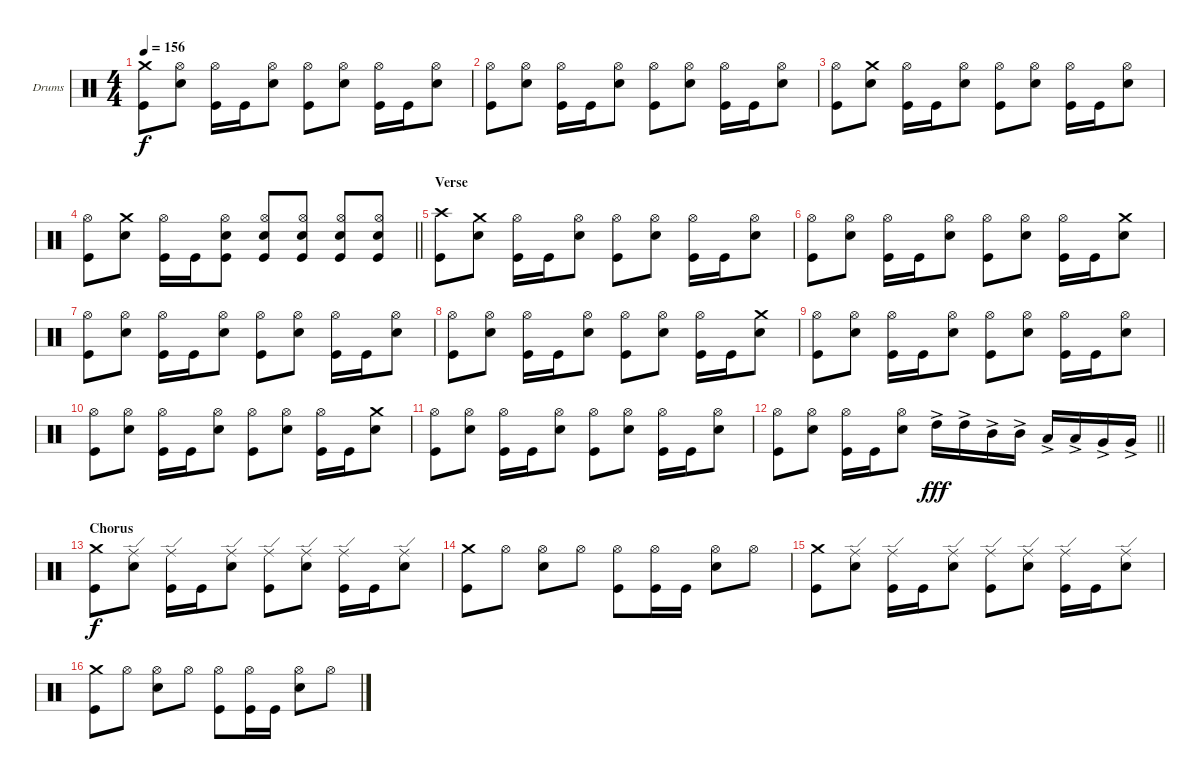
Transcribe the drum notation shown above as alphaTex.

\bracketExtendMode groupsimilarinstruments
\firstSystemTrackNameOrientation horizontal
\otherSystemsTrackNameOrientation horizontal
\track ("Drums" "Drums") {instrument percussion}
\staff {score}
\articulation defaults
\ts (4 4)
\tempo 156
\clef neutral
\ks c
("Crash medium (hit)" "Kick (hit)").8{dy f} ("Hi-Hat (open)" "Snare (hit) 2").8 ("Hi-Hat (open)" "Kick (hit)").16 "Kick (hit)".16 ("Hi-Hat (open)" "Snare (hit) 2").8 ("Hi-Hat (open)" "Kick (hit)").8 ("Hi-Hat (open)" "Snare (hit) 2").8 ("Hi-Hat (open)" "Kick (hit)").16 "Kick (hit)".16 ("Hi-Hat (open)" "Snare (hit) 2").8 |
("Hi-Hat (open)" "Kick (hit)").8 ("Hi-Hat (open)" "Snare (hit) 2").8 ("Hi-Hat (open)" "Kick (hit)").16 "Kick (hit)".16 ("Hi-Hat (open)" "Snare (hit) 2").8 ("Hi-Hat (open)" "Kick (hit)").8 ("Hi-Hat (open)" "Snare (hit) 2").8 ("Hi-Hat (open)" "Kick (hit)").16 "Kick (hit)".16 ("Hi-Hat (open)" "Snare (hit) 2").8 |
("Hi-Hat (open)" "Kick (hit)").8 ("Crash medium (hit)" "Snare (hit) 2").8 ("Hi-Hat (open)" "Kick (hit)").16 "Kick (hit)".16 ("Hi-Hat (open)" "Snare (hit) 2").8 ("Hi-Hat (open)" "Kick (hit)").8 ("Hi-Hat (open)" "Snare (hit) 2").8 ("Hi-Hat (open)" "Kick (hit)").16 "Kick (hit)".16 ("Hi-Hat (open)" "Snare (hit) 2").8 |
\barLineRight lightlight
("Hi-Hat (open)" "Kick (hit)").8 ("Crash medium (hit)" "Snare (hit) 2").8 ("Hi-Hat (open)" "Kick (hit)").16 "Kick (hit)".16 ("Hi-Hat (open)" "Snare (hit) 2" "Kick (hit)").8 ("Hi-Hat (open)" "Kick (hit)" "Snare (hit) 2").8 ("Kick (hit)" "Snare (hit) 2" "Hi-Hat (open)").8 ("Hi-Hat (open)" "Snare (hit) 2" "Kick (hit)").8 ("Hi-Hat (open)" "Snare (hit) 2" "Kick (hit)").8 |
\section ("" "Verse")
("Crash high (hit)" "Kick (hit)").8 ("Crash medium (hit)" "Snare (hit) 2").8 ("Hi-Hat (open)" "Kick (hit)").16 "Kick (hit)".16 ("Hi-Hat (open)" "Snare (hit) 2").8 ("Hi-Hat (open)" "Kick (hit)").8 ("Hi-Hat (open)" "Snare (hit) 2").8 ("Hi-Hat (open)" "Kick (hit)").16 "Kick (hit)".16 ("Hi-Hat (open)" "Snare (hit) 2").8 |
("Hi-Hat (open)" "Kick (hit)").8 ("Hi-Hat (open)" "Snare (hit) 2").8 ("Hi-Hat (open)" "Kick (hit)").16 "Kick (hit)".16 ("Hi-Hat (open)" "Snare (hit) 2").8 ("Hi-Hat (open)" "Kick (hit)").8 ("Hi-Hat (open)" "Snare (hit) 2").8 ("Hi-Hat (open)" "Kick (hit)").16 "Kick (hit)".16 ("Crash medium (hit)" "Snare (hit) 2").8 |
("Hi-Hat (open)" "Kick (hit)").8 ("Hi-Hat (open)" "Snare (hit) 2").8 ("Hi-Hat (open)" "Kick (hit)").16 "Kick (hit)".16 ("Hi-Hat (open)" "Snare (hit) 2").8 ("Hi-Hat (open)" "Kick (hit)").8 ("Hi-Hat (open)" "Snare (hit) 2").8 ("Hi-Hat (open)" "Kick (hit)").16 "Kick (hit)".16 ("Hi-Hat (open)" "Snare (hit) 2").8 |
("Hi-Hat (open)" "Kick (hit)").8 ("Hi-Hat (open)" "Snare (hit) 2").8 ("Hi-Hat (open)" "Kick (hit)").16 "Kick (hit)".16 ("Hi-Hat (open)" "Snare (hit) 2").8 ("Hi-Hat (open)" "Kick (hit)").8 ("Hi-Hat (open)" "Snare (hit) 2").8 ("Hi-Hat (open)" "Kick (hit)").16 "Kick (hit)".16 ("Crash medium (hit)" "Snare (hit) 2").8 |
("Hi-Hat (open)" "Kick (hit)").8 ("Hi-Hat (open)" "Snare (hit) 2").8 ("Hi-Hat (open)" "Kick (hit)").16 "Kick (hit)".16 ("Hi-Hat (open)" "Snare (hit) 2").8 ("Hi-Hat (open)" "Kick (hit)").8 ("Hi-Hat (open)" "Snare (hit) 2").8 ("Hi-Hat (open)" "Kick (hit)").16 "Kick (hit)".16 ("Hi-Hat (open)" "Snare (hit) 2").8 |
("Hi-Hat (open)" "Kick (hit)").8 ("Hi-Hat (open)" "Snare (hit) 2").8 ("Hi-Hat (open)" "Kick (hit)").16 "Kick (hit)".16 ("Hi-Hat (open)" "Snare (hit) 2").8 ("Hi-Hat (open)" "Kick (hit)").8 ("Hi-Hat (open)" "Snare (hit) 2").8 ("Hi-Hat (open)" "Kick (hit)").16 "Kick (hit)".16 ("Crash medium (hit)" "Snare (hit) 2").8 |
("Hi-Hat (open)" "Kick (hit)").8 ("Hi-Hat (open)" "Snare (hit) 2").8 ("Hi-Hat (open)" "Kick (hit)").16 "Kick (hit)".16 ("Hi-Hat (open)" "Snare (hit) 2").8 ("Hi-Hat (open)" "Kick (hit)").8 ("Hi-Hat (open)" "Snare (hit) 2").8 ("Hi-Hat (open)" "Kick (hit)").16 "Kick (hit)".16 ("Hi-Hat (open)" "Snare (hit) 2").8 |
\barLineRight lightlight
("Hi-Hat (open)" "Kick (hit)").8 ("Hi-Hat (open)" "Snare (hit) 2").8 ("Hi-Hat (open)" "Kick (hit)").16 "Kick (hit)".16 ("Hi-Hat (open)" "Snare (hit) 2").8 "High Tom (hit)"{ac}.16{dy fff} "High Tom (hit)"{ac}.16 "Mid Tom (hit)"{ac}.16 "Mid Tom (hit)"{ac}.16 "Low Tom (hit)"{ac}.16 "Low Tom (hit)"{ac}.16 "Very Low Tom (hit)"{ac}.16 "Very Low Tom (hit)"{ac}.16 |
\section ("" "Chorus")
("Crash medium (hit)" "Kick (hit)").8{dy f} ("Ride (edge)" "Snare (hit) 2").8 ("Ride (edge)" "Kick (hit)").16 "Kick (hit)".16 ("Ride (edge)" "Snare (hit) 2").8 ("Ride (edge)" "Kick (hit)").8 ("Ride (edge)" "Snare (hit) 2").8 ("Ride (edge)" "Kick (hit)").16 "Kick (hit)".16 ("Ride (edge)" "Snare (hit) 2").8 |
("Crash medium (hit)" "Kick (hit)").8 "Hi-Hat (open)".8 ("Hi-Hat (open)" "Snare (hit) 2").8 "Hi-Hat (open)".8 ("Hi-Hat (open)" "Kick (hit)").8 ("Hi-Hat (open)" "Kick (hit)").16 "Kick (hit)".16 ("Hi-Hat (open)" "Snare (hit) 2").8 "Hi-Hat (open)".8 |
("Crash medium (hit)" "Kick (hit)").8 ("Ride (edge)" "Snare (hit) 2").8 ("Ride (edge)" "Kick (hit)").16 "Kick (hit)".16 ("Ride (edge)" "Snare (hit) 2").8 ("Ride (edge)" "Kick (hit)").8 ("Ride (edge)" "Snare (hit) 2").8 ("Ride (edge)" "Kick (hit)").16 "Kick (hit)".16 ("Ride (edge)" "Snare (hit) 2").8 |
("Crash medium (hit)" "Kick (hit)").8 "Hi-Hat (open)".8 ("Hi-Hat (open)" "Snare (hit) 2").8 "Hi-Hat (open)".8 ("Hi-Hat (open)" "Kick (hit)").8 ("Hi-Hat (open)" "Kick (hit)").16 "Kick (hit)".16 ("Hi-Hat (open)" "Snare (hit) 2").8 "Hi-Hat (open)".8
